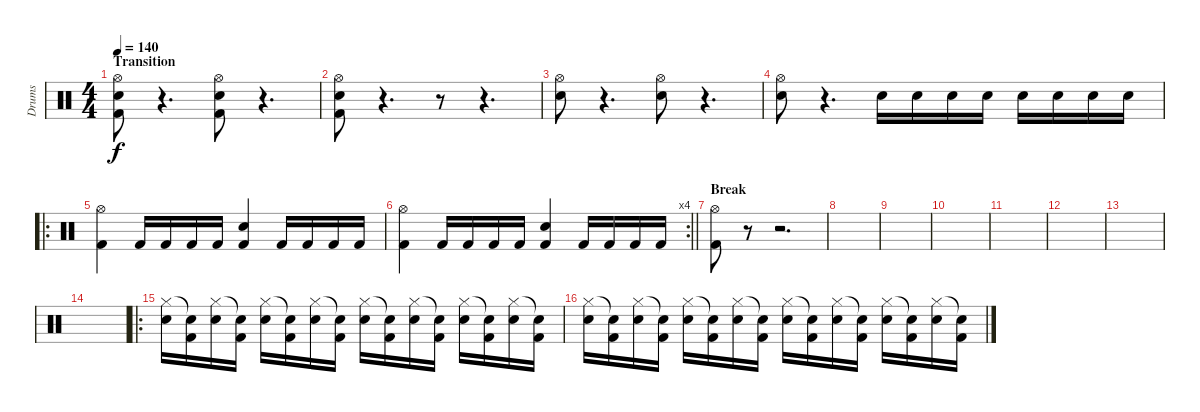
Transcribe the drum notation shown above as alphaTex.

\track ("Drums" "Drums") {instrument percussion}
\staff {score}
\articulation defaults
\ts (4 4)
\section ("" "Transition")
\tempo 140
\clef neutral
\ks c
("Kick (hit) 2" "Snare (hit) 2" "Hi-Hat (open)").8{dy f} r.4{d} ("Kick (hit) 2" "Snare (hit) 2" "Hi-Hat (open)").8 r.4{d} |
("Kick (hit) 2" "Snare (hit) 2" "Hi-Hat (open)").8 r.4{d} r.8 r.4{d} |
("Snare (hit) 2" "Hi-Hat (open)").8 r.4{d} ("Snare (hit) 2" "Hi-Hat (open)").8 r.4{d} |
("Snare (hit) 2" "Hi-Hat (open)").8 r.4{d} "Snare (hit) 2".16 "Snare (hit) 2".16 "Snare (hit) 2".16 "Snare (hit) 2".16 "Snare (hit) 2".16 "Snare (hit) 2".16 "Snare (hit) 2".16 "Snare (hit) 2".16 |
\ro
("Hi-Hat (open)" "Kick (hit) 2").4 "Kick (hit) 2".16 "Kick (hit) 2".16 "Kick (hit) 2".16 "Kick (hit) 2".16 ("Snare (hit) 2" "Kick (hit) 2").4 "Kick (hit) 2".16 "Kick (hit) 2".16 "Kick (hit) 2".16 "Kick (hit) 2".16 |
\rc 4
\barLineRight lightlight
("Hi-Hat (open)" "Kick (hit) 2").4 "Kick (hit) 2".16 "Kick (hit) 2".16 "Kick (hit) 2".16 "Kick (hit) 2".16 ("Snare (hit) 2" "Kick (hit) 2").4 "Kick (hit) 2".16 "Kick (hit) 2".16 "Kick (hit) 2".16 "Kick (hit) 2".16 |
\section ("" "Break")
("Kick (hit) 2" "Hi-Hat (open)").8 r.8 r.2{d} |
|
|
|
|
|
|
|
\ro
("Snare (hit) 2" "Hi-Hat (closed)").16 ("Kick (hit) 2" "Snare (hit)"{t}).16 ("Snare (hit) 2" "Hi-Hat (closed)").16 ("Kick (hit) 2" "Snare (hit)"{t}).16 ("Snare (hit) 2" "Hi-Hat (closed)").16 ("Kick (hit) 2" "Snare (hit)"{t}).16 ("Snare (hit) 2" "Hi-Hat (closed)").16 ("Kick (hit) 2" "Snare (hit)"{t}).16 ("Snare (hit) 2" "Hi-Hat (closed)").16 ("Kick (hit) 2" "Snare (hit)"{t}).16 ("Snare (hit) 2" "Hi-Hat (closed)").16 ("Kick (hit) 2" "Snare (hit)"{t}).16 ("Snare (hit) 2" "Hi-Hat (closed)").16 ("Kick (hit) 2" "Snare (hit)"{t}).16 ("Snare (hit) 2" "Hi-Hat (closed)").16 ("Kick (hit) 2" "Snare (hit)"{t}).16 |
("Snare (hit) 2" "Hi-Hat (closed)").16 ("Kick (hit) 2" "Snare (hit)"{t}).16 ("Snare (hit) 2" "Hi-Hat (closed)").16 ("Kick (hit) 2" "Snare (hit)"{t}).16 ("Snare (hit) 2" "Hi-Hat (closed)").16 ("Kick (hit) 2" "Snare (hit)"{t}).16 ("Snare (hit) 2" "Hi-Hat (closed)").16 ("Kick (hit) 2" "Snare (hit)"{t}).16 ("Snare (hit) 2" "Hi-Hat (closed)").16 ("Kick (hit) 2" "Snare (hit)"{t}).16 ("Snare (hit) 2" "Hi-Hat (closed)").16 ("Kick (hit) 2" "Snare (hit)"{t}).16 ("Snare (hit) 2" "Hi-Hat (closed)").16 ("Kick (hit) 2" "Snare (hit)"{t}).16 ("Snare (hit) 2" "Hi-Hat (closed)").16 ("Kick (hit) 2" "Snare (hit)"{t}).16
